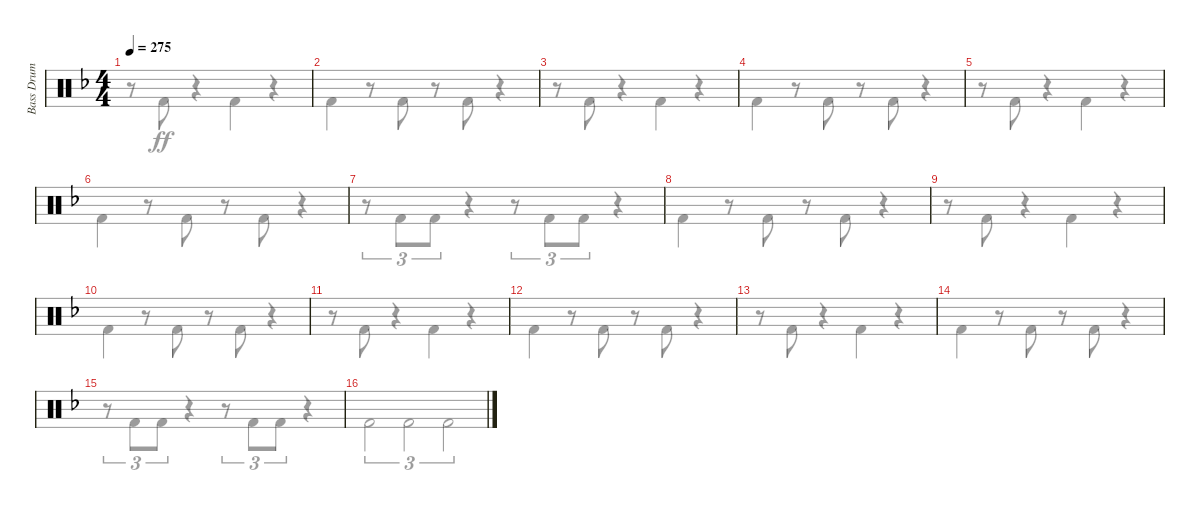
\track ("Bass Drum" "Bass Drum") {instrument percussion}
\staff {score}
\articulation defaults
\voice
\ts (4 4)
\tempo 275
\clef neutral
\ks dminor
|
|
|
|
|
|
|
|
|
|
|
|
|
|
|
\voice
\clef neutral
\ks dminor
r.8{dy ff} "Kick (hit) 2".8 r.4 "Kick (hit) 2".4 r.4 |
"Kick (hit) 2".4 r.8 "Kick (hit) 2".8 r.8 "Kick (hit) 2".8 r.4 |
r.8 "Kick (hit) 2".8 r.4 "Kick (hit) 2".4 r.4 |
"Kick (hit) 2".4 r.8 "Kick (hit) 2".8 r.8 "Kick (hit) 2".8 r.4 |
r.8 "Kick (hit) 2".8 r.4 "Kick (hit) 2".4 r.4 |
"Kick (hit) 2".4 r.8 "Kick (hit) 2".8 r.8 "Kick (hit) 2".8 r.4 |
r.8{tu (3 2)} "Kick (hit) 2".8{tu (3 2)} "Kick (hit) 2".8{tu (3 2)} r.4 r.8{tu (3 2)} "Kick (hit) 2".8{tu (3 2)} "Kick (hit) 2".8{tu (3 2)} r.4 |
"Kick (hit) 2".4 r.8 "Kick (hit) 2".8 r.8 "Kick (hit) 2".8 r.4 |
r.8 "Kick (hit) 2".8 r.4 "Kick (hit) 2".4 r.4 |
"Kick (hit) 2".4 r.8 "Kick (hit) 2".8 r.8 "Kick (hit) 2".8 r.4 |
r.8 "Kick (hit) 2".8 r.4 "Kick (hit) 2".4 r.4 |
"Kick (hit) 2".4 r.8 "Kick (hit) 2".8 r.8 "Kick (hit) 2".8 r.4 |
r.8 "Kick (hit) 2".8 r.4 "Kick (hit) 2".4 r.4 |
"Kick (hit) 2".4 r.8 "Kick (hit) 2".8 r.8 "Kick (hit) 2".8 r.4 |
r.8{tu (3 2)} "Kick (hit) 2".8{tu (3 2)} "Kick (hit) 2".8{tu (3 2)} r.4 r.8{tu (3 2)} "Kick (hit) 2".8{tu (3 2)} "Kick (hit) 2".8{tu (3 2)} r.4 |
"Kick (hit) 2".2{tu (3 2)} "Kick (hit) 2".2{tu (3 2)} "Kick (hit) 2".2{tu (3 2)}
